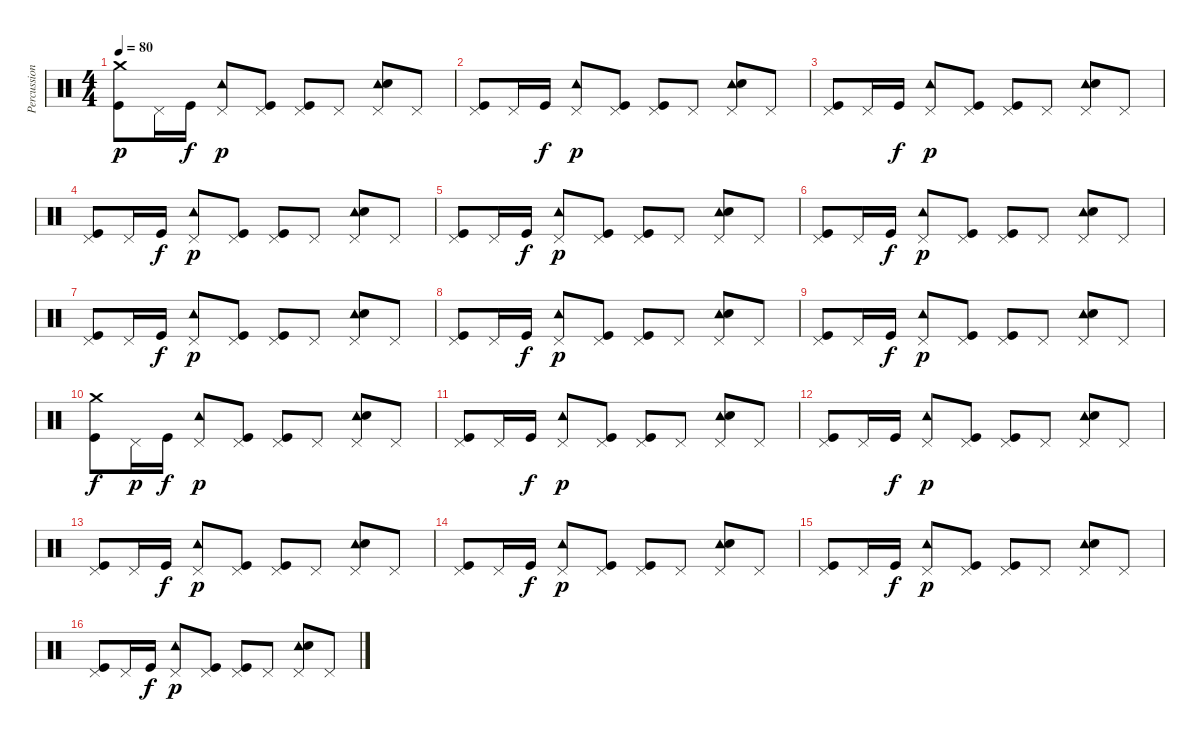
\track ("Percussion" "Percussion") {instrument percussion}
\staff {score}
\articulation defaults
\ts (4 4)
\tempo 80
\clef neutral
\ks c
("Crash medium (hit)" "Kick (hit)").8{dy p} "Pedal Hi-Hat (hit)".16 "Kick (hit)".16{dy f} ("Pedal Hi-Hat (hit)" "Tambourine (hit)").8{dy p} ("Pedal Hi-Hat (hit)" "Kick (hit)").8 ("Pedal Hi-Hat (hit)" "Kick (hit)").8 "Pedal Hi-Hat (hit)".8 ("Pedal Hi-Hat (hit)" "Tambourine (hit)" "Electric Snare (hit)").8 "Pedal Hi-Hat (hit)".8 |
("Pedal Hi-Hat (hit)" "Kick (hit)").8 "Pedal Hi-Hat (hit)".16 "Kick (hit)".16{dy f} ("Pedal Hi-Hat (hit)" "Tambourine (hit)").8{dy p} ("Pedal Hi-Hat (hit)" "Kick (hit)").8 ("Pedal Hi-Hat (hit)" "Kick (hit)").8 "Pedal Hi-Hat (hit)".8 ("Pedal Hi-Hat (hit)" "Tambourine (hit)" "Electric Snare (hit)").8 "Pedal Hi-Hat (hit)".8 |
("Pedal Hi-Hat (hit)" "Kick (hit)").8 "Pedal Hi-Hat (hit)".16 "Kick (hit)".16{dy f} ("Pedal Hi-Hat (hit)" "Tambourine (hit)").8{dy p} ("Pedal Hi-Hat (hit)" "Kick (hit)").8 ("Pedal Hi-Hat (hit)" "Kick (hit)").8 "Pedal Hi-Hat (hit)".8 ("Pedal Hi-Hat (hit)" "Tambourine (hit)" "Electric Snare (hit)").8 "Pedal Hi-Hat (hit)".8 |
("Pedal Hi-Hat (hit)" "Kick (hit)").8 "Pedal Hi-Hat (hit)".16 "Kick (hit)".16{dy f} ("Pedal Hi-Hat (hit)" "Tambourine (hit)").8{dy p} ("Pedal Hi-Hat (hit)" "Kick (hit)").8 ("Pedal Hi-Hat (hit)" "Kick (hit)").8 "Pedal Hi-Hat (hit)".8 ("Pedal Hi-Hat (hit)" "Tambourine (hit)" "Electric Snare (hit)").8 "Pedal Hi-Hat (hit)".8 |
("Pedal Hi-Hat (hit)" "Kick (hit)").8 "Pedal Hi-Hat (hit)".16 "Kick (hit)".16{dy f} ("Pedal Hi-Hat (hit)" "Tambourine (hit)").8{dy p} ("Pedal Hi-Hat (hit)" "Kick (hit)").8 ("Pedal Hi-Hat (hit)" "Kick (hit)").8 "Pedal Hi-Hat (hit)".8 ("Pedal Hi-Hat (hit)" "Tambourine (hit)" "Electric Snare (hit)").8 "Pedal Hi-Hat (hit)".8 |
("Pedal Hi-Hat (hit)" "Kick (hit)").8 "Pedal Hi-Hat (hit)".16 "Kick (hit)".16{dy f} ("Pedal Hi-Hat (hit)" "Tambourine (hit)").8{dy p} ("Pedal Hi-Hat (hit)" "Kick (hit)").8 ("Pedal Hi-Hat (hit)" "Kick (hit)").8 "Pedal Hi-Hat (hit)".8 ("Pedal Hi-Hat (hit)" "Tambourine (hit)" "Electric Snare (hit)").8 "Pedal Hi-Hat (hit)".8 |
("Pedal Hi-Hat (hit)" "Kick (hit)").8 "Pedal Hi-Hat (hit)".16 "Kick (hit)".16{dy f} ("Pedal Hi-Hat (hit)" "Tambourine (hit)").8{dy p} ("Pedal Hi-Hat (hit)" "Kick (hit)").8 ("Pedal Hi-Hat (hit)" "Kick (hit)").8 "Pedal Hi-Hat (hit)".8 ("Pedal Hi-Hat (hit)" "Tambourine (hit)" "Electric Snare (hit)").8 "Pedal Hi-Hat (hit)".8 |
("Pedal Hi-Hat (hit)" "Kick (hit)").8 "Pedal Hi-Hat (hit)".16 "Kick (hit)".16{dy f} ("Pedal Hi-Hat (hit)" "Tambourine (hit)").8{dy p} ("Pedal Hi-Hat (hit)" "Kick (hit)").8 ("Pedal Hi-Hat (hit)" "Kick (hit)").8 "Pedal Hi-Hat (hit)".8 ("Pedal Hi-Hat (hit)" "Tambourine (hit)" "Electric Snare (hit)").8 "Pedal Hi-Hat (hit)".8 |
("Pedal Hi-Hat (hit)" "Kick (hit)").8 "Pedal Hi-Hat (hit)".16 "Kick (hit)".16{dy f} ("Pedal Hi-Hat (hit)" "Tambourine (hit)").8{dy p} ("Pedal Hi-Hat (hit)" "Kick (hit)").8 ("Pedal Hi-Hat (hit)" "Kick (hit)").8 "Pedal Hi-Hat (hit)".8 ("Pedal Hi-Hat (hit)" "Tambourine (hit)" "Electric Snare (hit)").8 "Pedal Hi-Hat (hit)".8 |
("Crash medium (hit)" "Kick (hit)").8{dy f} "Pedal Hi-Hat (hit)".16{dy p} "Kick (hit)".16{dy f} ("Pedal Hi-Hat (hit)" "Tambourine (hit)").8{dy p} ("Pedal Hi-Hat (hit)" "Kick (hit)").8 ("Pedal Hi-Hat (hit)" "Kick (hit)").8 "Pedal Hi-Hat (hit)".8 ("Pedal Hi-Hat (hit)" "Tambourine (hit)" "Electric Snare (hit)").8 "Pedal Hi-Hat (hit)".8 |
("Pedal Hi-Hat (hit)" "Kick (hit)").8 "Pedal Hi-Hat (hit)".16 "Kick (hit)".16{dy f} ("Pedal Hi-Hat (hit)" "Tambourine (hit)").8{dy p} ("Pedal Hi-Hat (hit)" "Kick (hit)").8 ("Pedal Hi-Hat (hit)" "Kick (hit)").8 "Pedal Hi-Hat (hit)".8 ("Pedal Hi-Hat (hit)" "Tambourine (hit)" "Electric Snare (hit)").8 "Pedal Hi-Hat (hit)".8 |
("Pedal Hi-Hat (hit)" "Kick (hit)").8 "Pedal Hi-Hat (hit)".16 "Kick (hit)".16{dy f} ("Pedal Hi-Hat (hit)" "Tambourine (hit)").8{dy p} ("Pedal Hi-Hat (hit)" "Kick (hit)").8 ("Pedal Hi-Hat (hit)" "Kick (hit)").8 "Pedal Hi-Hat (hit)".8 ("Pedal Hi-Hat (hit)" "Tambourine (hit)" "Electric Snare (hit)").8 "Pedal Hi-Hat (hit)".8 |
("Pedal Hi-Hat (hit)" "Kick (hit)").8 "Pedal Hi-Hat (hit)".16 "Kick (hit)".16{dy f} ("Pedal Hi-Hat (hit)" "Tambourine (hit)").8{dy p} ("Pedal Hi-Hat (hit)" "Kick (hit)").8 ("Pedal Hi-Hat (hit)" "Kick (hit)").8 "Pedal Hi-Hat (hit)".8 ("Pedal Hi-Hat (hit)" "Tambourine (hit)" "Electric Snare (hit)").8 "Pedal Hi-Hat (hit)".8 |
("Pedal Hi-Hat (hit)" "Kick (hit)").8 "Pedal Hi-Hat (hit)".16 "Kick (hit)".16{dy f} ("Pedal Hi-Hat (hit)" "Tambourine (hit)").8{dy p} ("Pedal Hi-Hat (hit)" "Kick (hit)").8 ("Pedal Hi-Hat (hit)" "Kick (hit)").8 "Pedal Hi-Hat (hit)".8 ("Pedal Hi-Hat (hit)" "Tambourine (hit)" "Electric Snare (hit)").8 "Pedal Hi-Hat (hit)".8 |
("Pedal Hi-Hat (hit)" "Kick (hit)").8 "Pedal Hi-Hat (hit)".16 "Kick (hit)".16{dy f} ("Pedal Hi-Hat (hit)" "Tambourine (hit)").8{dy p} ("Pedal Hi-Hat (hit)" "Kick (hit)").8 ("Pedal Hi-Hat (hit)" "Kick (hit)").8 "Pedal Hi-Hat (hit)".8 ("Pedal Hi-Hat (hit)" "Tambourine (hit)" "Electric Snare (hit)").8 "Pedal Hi-Hat (hit)".8 |
("Pedal Hi-Hat (hit)" "Kick (hit)").8 "Pedal Hi-Hat (hit)".16 "Kick (hit)".16{dy f} ("Pedal Hi-Hat (hit)" "Tambourine (hit)").8{dy p} ("Pedal Hi-Hat (hit)" "Kick (hit)").8 ("Pedal Hi-Hat (hit)" "Kick (hit)").8 "Pedal Hi-Hat (hit)".8 ("Pedal Hi-Hat (hit)" "Tambourine (hit)" "Electric Snare (hit)").8 "Pedal Hi-Hat (hit)".8
